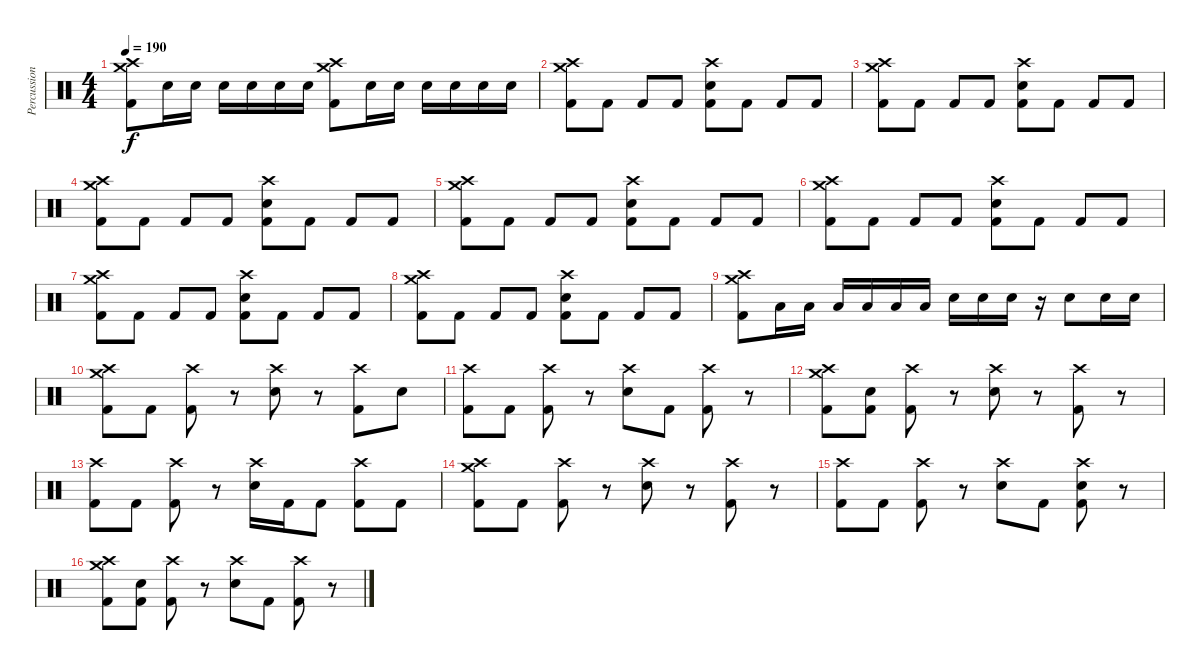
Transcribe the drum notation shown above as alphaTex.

\track ("Percussion" "Percussion") {instrument percussion}
\staff {score}
\articulation defaults
\ts (4 4)
\tempo 190
\clef neutral
\ks c
("Crash high (hit)" "Crash medium (hit)" "Kick (hit) 2").8{dy f} "Electric Snare (hit)".16 "Electric Snare (hit)".16 "Electric Snare (hit)".16 "Electric Snare (hit)".16 "Electric Snare (hit)".16 "Electric Snare (hit)".16 ("Crash high (hit)" "Crash medium (hit)" "Kick (hit) 2").8 "Electric Snare (hit)".16 "Electric Snare (hit)".16 "Electric Snare (hit)".16 "Electric Snare (hit)".16 "Electric Snare (hit)".16 "Electric Snare (hit)".16 |
("Crash high (hit)" "Crash medium (hit)" "Kick (hit) 2").8 "Kick (hit) 2".8 "Kick (hit) 2".8 "Kick (hit) 2".8 ("Crash high (hit)" "Electric Snare (hit)" "Kick (hit) 2").8 "Kick (hit) 2".8 "Kick (hit) 2".8 "Kick (hit) 2".8 |
("Crash high (hit)" "Crash medium (hit)" "Kick (hit) 2").8 "Kick (hit) 2".8 "Kick (hit) 2".8 "Kick (hit) 2".8 ("Crash high (hit)" "Electric Snare (hit)" "Kick (hit) 2").8 "Kick (hit) 2".8 "Kick (hit) 2".8 "Kick (hit) 2".8 |
("Crash high (hit)" "Crash medium (hit)" "Kick (hit) 2").8 "Kick (hit) 2".8 "Kick (hit) 2".8 "Kick (hit) 2".8 ("Crash high (hit)" "Electric Snare (hit)" "Kick (hit) 2").8 "Kick (hit) 2".8 "Kick (hit) 2".8 "Kick (hit) 2".8 |
("Crash high (hit)" "Crash medium (hit)" "Kick (hit) 2").8 "Kick (hit) 2".8 "Kick (hit) 2".8 "Kick (hit) 2".8 ("Crash high (hit)" "Electric Snare (hit)" "Kick (hit) 2").8 "Kick (hit) 2".8 "Kick (hit) 2".8 "Kick (hit) 2".8 |
("Crash high (hit)" "Crash medium (hit)" "Kick (hit) 2").8 "Kick (hit) 2".8 "Kick (hit) 2".8 "Kick (hit) 2".8 ("Crash high (hit)" "Electric Snare (hit)" "Kick (hit) 2").8 "Kick (hit) 2".8 "Kick (hit) 2".8 "Kick (hit) 2".8 |
("Crash high (hit)" "Crash medium (hit)" "Kick (hit) 2").8 "Kick (hit) 2".8 "Kick (hit) 2".8 "Kick (hit) 2".8 ("Crash high (hit)" "Electric Snare (hit)" "Kick (hit) 2").8 "Kick (hit) 2".8 "Kick (hit) 2".8 "Kick (hit) 2".8 |
("Crash high (hit)" "Crash medium (hit)" "Kick (hit) 2").8 "Kick (hit) 2".8 "Kick (hit) 2".8 "Kick (hit) 2".8 ("Crash high (hit)" "Electric Snare (hit)" "Kick (hit) 2").8 "Kick (hit) 2".8 "Kick (hit) 2".8 "Kick (hit) 2".8 |
("Crash high (hit)" "Crash medium (hit)" "Kick (hit) 2").8 "Low Tom (hit)".16 "Low Tom (hit)".16 "Low Tom (hit)".16 "Low Floor Tom (hit)".16 "Low Floor Tom (hit)".16 "Low Floor Tom (hit)".16 "Electric Snare (hit)".16 "Electric Snare (hit)".16 "Electric Snare (hit)".16 r.16 "Electric Snare (hit)".8 "Electric Snare (hit)".16 "Electric Snare (hit)".16 |
("Crash high (hit)" "Crash medium (hit)" "Kick (hit) 2").8 "Kick (hit) 2".8 ("Crash high (hit)" "Kick (hit) 2").8 r.8 ("Crash high (hit)" "Electric Snare (hit)").8 r.8 ("Crash high (hit)" "Kick (hit) 2").8 "Electric Snare (hit)".8 |
("Crash high (hit)" "Kick (hit) 2").8 "Kick (hit) 2".8 ("Crash high (hit)" "Kick (hit) 2").8 r.8 ("Crash high (hit)" "Electric Snare (hit)").8 "Kick (hit) 2".8 ("Crash high (hit)" "Kick (hit) 2").8 r.8 |
("Crash high (hit)" "Crash medium (hit)" "Kick (hit) 2").8 ("Electric Snare (hit)" "Kick (hit) 2").8 ("Crash high (hit)" "Kick (hit) 2").8 r.8 ("Crash high (hit)" "Electric Snare (hit)").8 r.8 ("Crash high (hit)" "Kick (hit) 2").8 r.8 |
("Crash high (hit)" "Kick (hit) 2").8 "Kick (hit) 2".8 ("Crash high (hit)" "Kick (hit) 2").8 r.8 ("Crash high (hit)" "Electric Snare (hit)").16 "Kick (hit) 2".16 "Kick (hit) 2".8 ("Crash high (hit)" "Kick (hit) 2").8 "Kick (hit) 2".8 |
("Crash high (hit)" "Crash medium (hit)" "Kick (hit) 2").8 "Kick (hit) 2".8 ("Crash high (hit)" "Kick (hit) 2").8 r.8 ("Crash high (hit)" "Electric Snare (hit)").8 r.8 ("Crash high (hit)" "Kick (hit) 2").8 r.8 |
("Crash high (hit)" "Kick (hit) 2").8 "Kick (hit) 2".8 ("Crash high (hit)" "Kick (hit) 2").8 r.8 ("Crash high (hit)" "Electric Snare (hit)").8 "Kick (hit) 2".8 ("Crash high (hit)" "Electric Snare (hit)" "Kick (hit) 2").8 r.8 |
("Crash high (hit)" "Crash medium (hit)" "Kick (hit) 2").8 ("Electric Snare (hit)" "Kick (hit) 2").8 ("Crash high (hit)" "Kick (hit) 2").8 r.8 ("Crash high (hit)" "Electric Snare (hit)").8 "Kick (hit) 2".8 ("Crash high (hit)" "Kick (hit) 2").8 r.8
